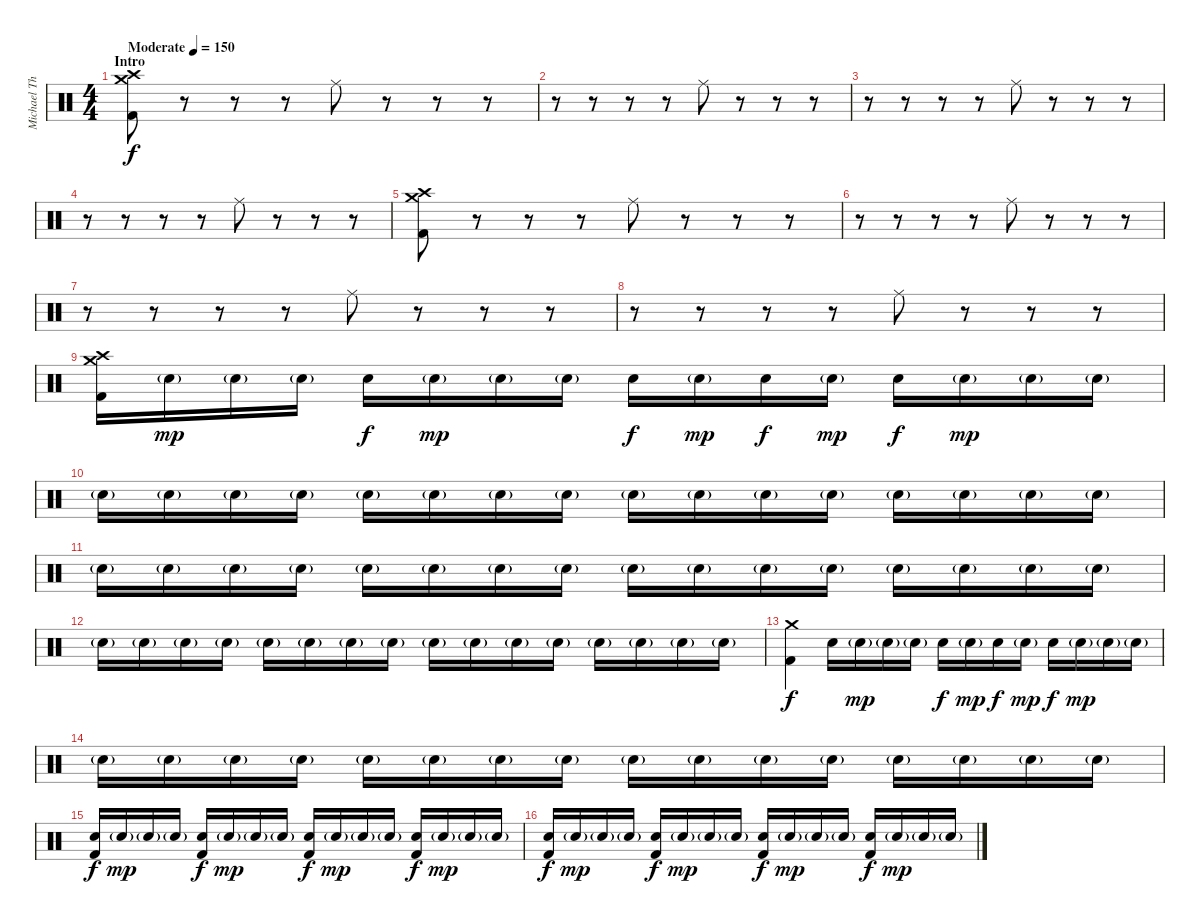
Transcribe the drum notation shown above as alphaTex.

\track ("Michael Thomas" "Michael Th") {instrument percussion}
\staff {score}
\articulation defaults
\ts (4 4)
\section ("" "Intro")
\tempo (150 "Moderate")
\clef neutral
\ks c
("Crash high (hit)" "Crash medium (hit)" "Kick (hit) 2").8{dy f} r.8 r.8 r.8 "Ride (middle)".8 r.8 r.8 r.8 |
r.8 r.8 r.8 r.8 "Ride (middle)".8 r.8 r.8 r.8 |
r.8 r.8 r.8 r.8 "Ride (middle)".8 r.8 r.8 r.8 |
r.8 r.8 r.8 r.8 "Ride (middle)".8 r.8 r.8 r.8 |
("Crash high (hit)" "Crash medium (hit)" "Kick (hit) 2").8 r.8 r.8 r.8 "Ride (middle)".8 r.8 r.8 r.8 |
r.8 r.8 r.8 r.8 "Ride (middle)".8 r.8 r.8 r.8 |
r.8 r.8 r.8 r.8 "Ride (middle)".8 r.8 r.8 r.8 |
r.8 r.8 r.8 r.8 "Ride (middle)".8 r.8 r.8 r.8 |
("Crash high (hit)" "Crash medium (hit)" "Kick (hit) 2").16 "Electric Snare (hit)"{g}.16{dy mp} "Electric Snare (hit)"{g}.16 "Electric Snare (hit)"{g}.16 "Electric Snare (hit)".16{dy f} "Electric Snare (hit)"{g}.16{dy mp} "Electric Snare (hit)"{g}.16 "Electric Snare (hit)"{g}.16 "Electric Snare (hit)".16{dy f} "Electric Snare (hit)"{g}.16{dy mp} "Electric Snare (hit)".16{dy f} "Electric Snare (hit)"{g}.16{dy mp} "Electric Snare (hit)".16{dy f} "Electric Snare (hit)"{g}.16{dy mp} "Electric Snare (hit)"{g}.16 "Electric Snare (hit)"{g}.16 |
"Electric Snare (hit)"{g}.16 "Electric Snare (hit)"{g}.16 "Electric Snare (hit)"{g}.16 "Electric Snare (hit)"{g}.16 "Electric Snare (hit)"{g}.16 "Electric Snare (hit)"{g}.16 "Electric Snare (hit)"{g}.16 "Electric Snare (hit)"{g}.16 "Electric Snare (hit)"{g}.16 "Electric Snare (hit)"{g}.16 "Electric Snare (hit)"{g}.16 "Electric Snare (hit)"{g}.16 "Electric Snare (hit)"{g}.16 "Electric Snare (hit)"{g}.16 "Electric Snare (hit)"{g}.16 "Electric Snare (hit)"{g}.16 |
"Electric Snare (hit)"{g}.16 "Electric Snare (hit)"{g}.16 "Electric Snare (hit)"{g}.16 "Electric Snare (hit)"{g}.16 "Electric Snare (hit)"{g}.16 "Electric Snare (hit)"{g}.16 "Electric Snare (hit)"{g}.16 "Electric Snare (hit)"{g}.16 "Electric Snare (hit)"{g}.16 "Electric Snare (hit)"{g}.16 "Electric Snare (hit)"{g}.16 "Electric Snare (hit)"{g}.16 "Electric Snare (hit)"{g}.16 "Electric Snare (hit)"{g}.16 "Electric Snare (hit)"{g}.16 "Electric Snare (hit)"{g}.16 |
"Electric Snare (hit)"{g}.16 "Electric Snare (hit)"{g}.16 "Electric Snare (hit)"{g}.16 "Electric Snare (hit)"{g}.16 "Electric Snare (hit)"{g}.16 "Electric Snare (hit)"{g}.16 "Electric Snare (hit)"{g}.16 "Electric Snare (hit)"{g}.16 "Electric Snare (hit)"{g}.16 "Electric Snare (hit)"{g}.16 "Electric Snare (hit)"{g}.16 "Electric Snare (hit)"{g}.16 "Electric Snare (hit)"{g}.16 "Electric Snare (hit)"{g}.16 "Electric Snare (hit)"{g}.16 "Electric Snare (hit)"{g}.16 |
("Crash medium (hit)" "Kick (hit) 2").4{dy f} "Electric Snare (hit)".16 "Electric Snare (hit)"{g}.16{dy mp} "Electric Snare (hit)"{g}.16 "Electric Snare (hit)"{g}.16 "Electric Snare (hit)".16{dy f} "Electric Snare (hit)"{g}.16{dy mp} "Electric Snare (hit)".16{dy f} "Electric Snare (hit)"{g}.16{dy mp} "Electric Snare (hit)".16{dy f} "Electric Snare (hit)"{g}.16{dy mp} "Electric Snare (hit)"{g}.16 "Electric Snare (hit)"{g}.16 |
"Electric Snare (hit)"{g}.16 "Electric Snare (hit)"{g}.16 "Electric Snare (hit)"{g}.16 "Electric Snare (hit)"{g}.16 "Electric Snare (hit)"{g}.16 "Electric Snare (hit)"{g}.16 "Electric Snare (hit)"{g}.16 "Electric Snare (hit)"{g}.16 "Electric Snare (hit)"{g}.16 "Electric Snare (hit)"{g}.16 "Electric Snare (hit)"{g}.16 "Electric Snare (hit)"{g}.16 "Electric Snare (hit)"{g}.16 "Electric Snare (hit)"{g}.16 "Electric Snare (hit)"{g}.16 "Electric Snare (hit)"{g}.16 |
("Electric Snare (hit)" "Kick (hit) 2").16{dy f} "Electric Snare (hit)"{g}.16{dy mp} "Electric Snare (hit)"{g}.16 "Electric Snare (hit)"{g}.16 ("Electric Snare (hit)" "Kick (hit) 2").16{dy f} "Electric Snare (hit)"{g}.16{dy mp} "Electric Snare (hit)"{g}.16 "Electric Snare (hit)"{g}.16 ("Electric Snare (hit)" "Kick (hit) 2").16{dy f} "Electric Snare (hit)"{g}.16{dy mp} "Electric Snare (hit)"{g}.16 "Electric Snare (hit)"{g}.16 ("Electric Snare (hit)" "Kick (hit) 2").16{dy f} "Electric Snare (hit)"{g}.16{dy mp} "Electric Snare (hit)"{g}.16 "Electric Snare (hit)"{g}.16 |
("Electric Snare (hit)" "Kick (hit) 2").16{dy f} "Electric Snare (hit)"{g}.16{dy mp} "Electric Snare (hit)"{g}.16 "Electric Snare (hit)"{g}.16 ("Electric Snare (hit)" "Kick (hit) 2").16{dy f} "Electric Snare (hit)"{g}.16{dy mp} "Electric Snare (hit)"{g}.16 "Electric Snare (hit)"{g}.16 ("Electric Snare (hit)" "Kick (hit) 2").16{dy f} "Electric Snare (hit)"{g}.16{dy mp} "Electric Snare (hit)"{g}.16 "Electric Snare (hit)"{g}.16 ("Electric Snare (hit)" "Kick (hit) 2").16{dy f} "Electric Snare (hit)"{g}.16{dy mp} "Electric Snare (hit)"{g}.16 "Electric Snare (hit)"{g}.16
